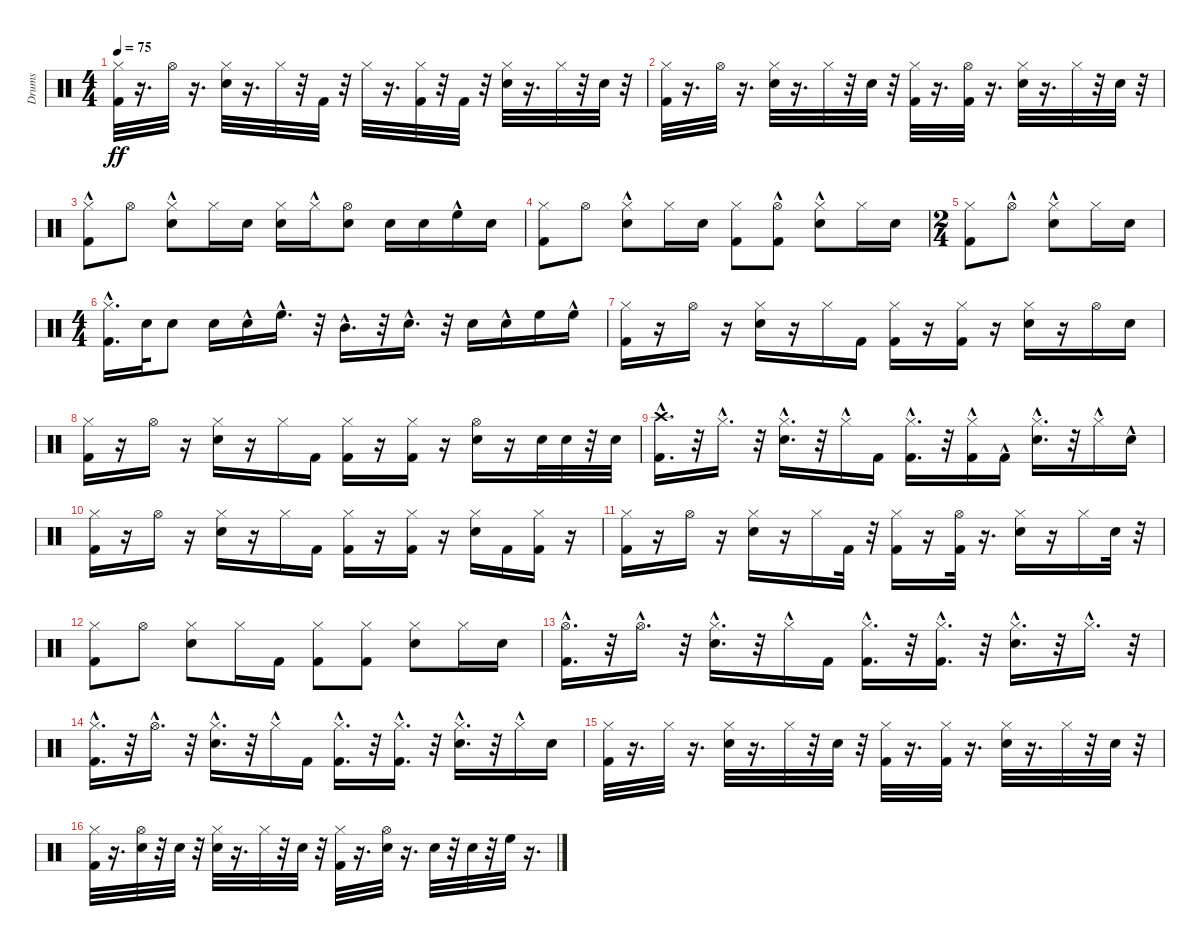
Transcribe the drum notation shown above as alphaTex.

\track ("Drums" "Drums") {instrument percussion}
\staff {score}
\articulation defaults
\ts (4 4)
\tempo 75
\clef neutral
\ks c
("Kick (hit) 2" "Hi-Hat (closed)").32{dy ff} r.16{d} "Hi-Hat (open)".32 r.16{d} ("Snare (hit) 2" "Hi-Hat (closed)").32 r.16{d} "Hi-Hat (closed)".32 r.32 "Kick (hit) 2".32 r.32 "Hi-Hat (closed)".32 r.16{d} ("Kick (hit) 2" "Hi-Hat (closed)").32 r.32 "Kick (hit) 2".32 r.32 ("Snare (hit) 2" "Hi-Hat (closed)").32 r.16{d} "Hi-Hat (closed)".32 r.32 "Snare (hit) 2".32 r.32 |
("Kick (hit) 2" "Hi-Hat (closed)").32 r.16{d} "Hi-Hat (open)".32 r.16{d} ("Snare (hit) 2" "Hi-Hat (closed)").32 r.16{d} "Hi-Hat (closed)".32 r.32 "Snare (hit) 2".32 r.32 ("Kick (hit) 2" "Hi-Hat (closed)").32 r.16{d} ("Kick (hit) 2" "Hi-Hat (open)").32 r.16{d} ("Snare (hit) 2" "Hi-Hat (closed)").32 r.16{d} "Hi-Hat (closed)".32 r.32 "Snare (hit) 2".32 r.32 |
("Kick (hit) 2"{hac} "Hi-Hat (closed)").8 "Hi-Hat (open)".8 ("Snare (hit) 2"{hac} "Hi-Hat (closed)").8 "Hi-Hat (closed)".16 "Snare (hit) 2".16 ("Snare (hit) 2" "Hi-Hat (closed)").16 "Hi-Hat (closed)"{hac}.16 ("Hi-Hat (open)" "Snare (hit) 2").8 "Snare (hit) 2".16 "Snare (hit) 2".16 "High Floor Tom (hit)"{hac}.16 "Snare (hit) 2".16 |
("Kick (hit) 2" "Hi-Hat (closed)").8 "Hi-Hat (open)".8 ("Snare (hit) 2"{hac} "Hi-Hat (closed)").8 "Hi-Hat (closed)".16 "Snare (hit) 2".16 ("Kick (hit) 2" "Hi-Hat (closed)").8 ("Hi-Hat (open)" "Kick (hit) 2"{hac}).8 ("Snare (hit) 2"{hac} "Hi-Hat (closed)").8 "Hi-Hat (closed)".16 "Snare (hit) 2".16 |
\ts (2 4)
("Kick (hit) 2" "Hi-Hat (closed)").8 "Hi-Hat (open)"{hac}.8 ("Snare (hit) 2"{hac} "Hi-Hat (closed)").8 "Hi-Hat (closed)".16 "Snare (hit) 2".16 |
\ts (4 4)
("Kick (hit) 2"{hac} "Hi-Hat (closed)"{hac}).16{d} "Snare (hit) 2".32 "Snare (hit) 2".8 "Snare (hit) 2".16 "Snare (hit) 2"{hac}.16 "High Floor Tom (hit)"{hac}.16{d} r.32 "Mid Tom (hit)"{hac}.16{d} r.32 "Snare (hit) 2"{hac}.16{d} r.32 "Snare (hit) 2".16 "Snare (hit) 2"{hac}.16 "High Floor Tom (hit)".16 "High Floor Tom (hit)"{hac}.16 |
("Kick (hit) 2" "Hi-Hat (closed)").16 r.16 "Hi-Hat (open)".16 r.16 ("Snare (hit) 2" "Hi-Hat (closed)").16 r.16 "Hi-Hat (closed)".16 "Kick (hit) 2".16 ("Kick (hit) 2" "Hi-Hat (closed)").16 r.16 ("Kick (hit) 2" "Hi-Hat (closed)").16 r.16 ("Snare (hit) 2" "Hi-Hat (closed)").16 r.16 "Hi-Hat (open)".16 "Snare (hit) 2".16 |
("Kick (hit) 2" "Hi-Hat (closed)").16 r.16 "Hi-Hat (open)".16 r.16 ("Snare (hit) 2" "Hi-Hat (closed)").16 r.16 "Hi-Hat (closed)".16 "Kick (hit) 2".16 ("Kick (hit) 2" "Hi-Hat (closed)").16 r.16 ("Kick (hit) 2" "Hi-Hat (closed)").16 r.16 ("Snare (hit) 2" "Hi-Hat (open)").16 r.16 "Snare (hit) 2".32 "Snare (hit) 2".32 r.32 "Snare (hit) 2".32 |
("Kick (hit) 2"{hac} "Crash high (hit)"{hac}).16{d} r.32 "Hi-Hat (closed)"{hac}.16{d} r.32 ("Snare (hit) 2"{hac} "Hi-Hat (closed)"{hac}).16{d} r.32 "Hi-Hat (closed)"{hac}.16 "Kick (hit) 2".16 ("Kick (hit) 2"{hac} "Hi-Hat (closed)"{hac}).16{d} r.32 ("Kick (hit) 2" "Hi-Hat (closed)"{hac}).16 "Kick (hit) 2"{hac}.16 ("Snare (hit) 2"{hac} "Hi-Hat (closed)"{hac}).16{d} r.32 "Hi-Hat (closed)"{hac}.16 "Snare (hit) 2"{hac}.16 |
("Kick (hit) 2" "Hi-Hat (closed)").16 r.16 "Hi-Hat (open)".16 r.16 ("Snare (hit) 2" "Hi-Hat (closed)").16 r.16 "Hi-Hat (closed)".16 "Kick (hit) 2".16 ("Kick (hit) 2" "Hi-Hat (closed)").16 r.16 ("Kick (hit) 2" "Hi-Hat (closed)").16 r.16 ("Snare (hit) 2" "Hi-Hat (closed)").16 "Kick (hit) 2".16 ("Kick (hit) 2" "Hi-Hat (closed)").16 r.16 |
("Kick (hit) 2" "Hi-Hat (closed)").16 r.16 "Hi-Hat (open)".16 r.16 ("Snare (hit) 2" "Hi-Hat (closed)").16 r.16 "Hi-Hat (closed)".16 "Kick (hit) 2".32 r.32 ("Kick (hit) 2" "Hi-Hat (closed)").16 r.16 ("Kick (hit) 2" "Hi-Hat (open)").32 r.16{d} ("Snare (hit) 2" "Hi-Hat (closed)").16 r.16 "Hi-Hat (closed)".16 "Snare (hit) 2".32 r.32 |
("Kick (hit) 2" "Hi-Hat (closed)").8 "Hi-Hat (open)".8 ("Snare (hit) 2" "Hi-Hat (closed)").8 "Hi-Hat (closed)".16 "Kick (hit) 2".16 ("Kick (hit) 2" "Hi-Hat (closed)").8 ("Kick (hit) 2" "Hi-Hat (closed)").8 ("Snare (hit) 2" "Hi-Hat (closed)").8 "Hi-Hat (closed)".16 "Snare (hit) 2".16 |
("Kick (hit) 2"{hac} "Hi-Hat (open)"{hac}).16{d} r.32 "Hi-Hat (open)"{hac}.16{d} r.32 ("Snare (hit) 2"{hac} "Hi-Hat (closed)"{hac}).16{d} r.32 "Hi-Hat (closed)"{hac}.16 "Kick (hit) 2".16 ("Kick (hit) 2"{hac} "Hi-Hat (closed)"{hac}).16{d} r.32 ("Kick (hit) 2"{hac} "Hi-Hat (closed)"{hac}).16{d} r.32 ("Snare (hit) 2"{hac} "Hi-Hat (closed)"{hac}).16{d} r.32 "Hi-Hat (closed)"{hac}.16{d} r.32 |
("Kick (hit) 2" "Hi-Hat (closed)"{hac}).16{d} r.32 "Hi-Hat (open)"{hac}.16{d} r.32 ("Snare (hit) 2" "Hi-Hat (closed)"{hac}).16{d} r.32 "Hi-Hat (closed)"{hac}.16 "Kick (hit) 2".16 ("Kick (hit) 2" "Hi-Hat (closed)"{hac}).16{d} r.32 ("Kick (hit) 2" "Hi-Hat (closed)"{hac}).16{d} r.32 ("Snare (hit) 2" "Hi-Hat (closed)"{hac}).16{d} r.32 "Hi-Hat (closed)"{hac}.16 "Snare (hit) 2".16 |
("Kick (hit) 2" "Hi-Hat (closed)").32 r.16{d} "Hi-Hat (closed)".32 r.16{d} ("Snare (hit) 2" "Hi-Hat (closed)").32 r.16{d} "Hi-Hat (closed)".32 r.32 "Snare (hit) 2".32 r.32 ("Kick (hit) 2" "Hi-Hat (closed)").32 r.16{d} ("Kick (hit) 2" "Hi-Hat (closed)").32 r.16{d} ("Snare (hit) 2" "Hi-Hat (closed)").32 r.16{d} "Hi-Hat (closed)".32 r.32 "Snare (hit) 2".32 r.32 |
("Kick (hit) 2" "Hi-Hat (closed)").32 r.16{d} ("Snare (hit) 2" "Hi-Hat (open)").32 r.32 "Snare (hit) 2".32 r.32 ("Snare (hit) 2" "Hi-Hat (closed)").32 r.16{d} "Hi-Hat (closed)".32 r.32 "Snare (hit) 2".32 r.32 ("Kick (hit) 2" "Hi-Hat (closed)").32 r.16{d} ("Snare (hit) 2" "Hi-Hat (open)").32 r.16{d} "Snare (hit) 2".32 r.32 "Snare (hit) 2".32 r.32 "High Floor Tom (hit)".32 r.16{d}
